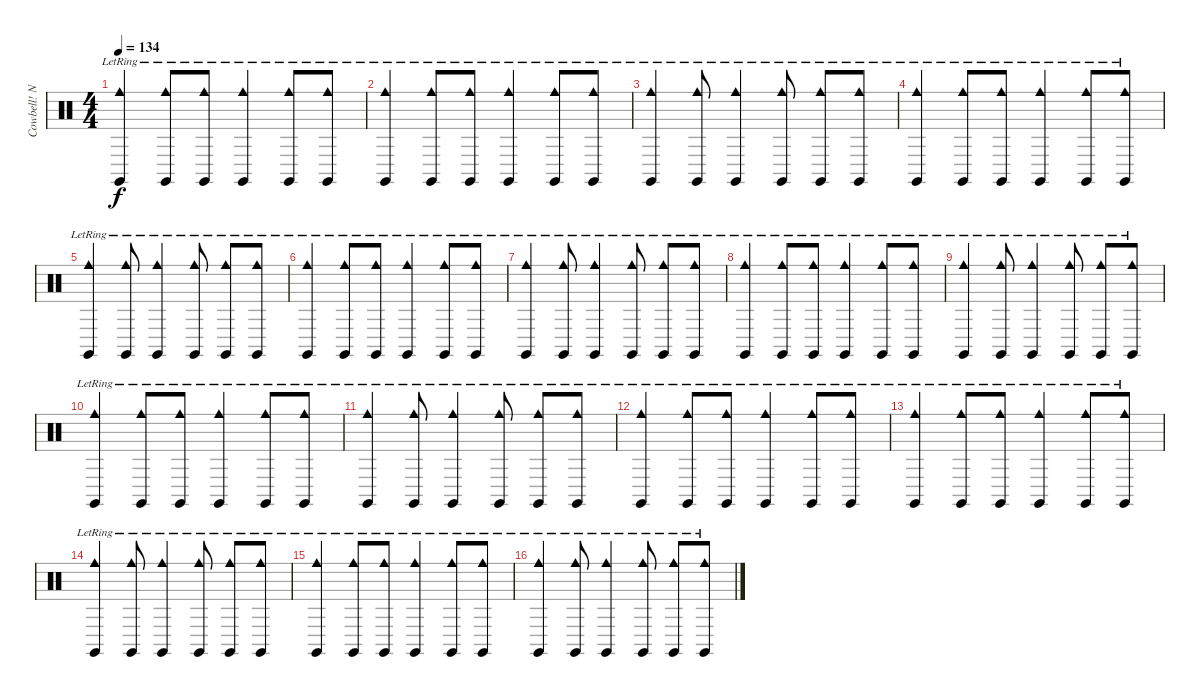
\track ("Cowbell! Need More Cowbell!" "Cowbell! N") {instrument percussion}
\staff {score}
\articulation defaults
\ts (4 4)
\tempo 134
\clef neutral
\ks c
("Cowbell medium (hit)"{lr} "Claves (hit)").4{dy f} ("Cowbell medium (hit)"{lr} "Claves (hit)").8 ("Cowbell medium (hit)"{lr} "Claves (hit)").8 ("Cowbell medium (hit)"{lr} "Claves (hit)").4 ("Cowbell medium (hit)"{lr} "Claves (hit)").8 ("Cowbell medium (hit)"{lr} "Claves (hit)").8 |
("Cowbell medium (hit)"{lr} "Claves (hit)").4 ("Cowbell medium (hit)"{lr} "Claves (hit)").8 ("Cowbell medium (hit)"{lr} "Claves (hit)").8 ("Cowbell medium (hit)"{lr} "Claves (hit)").4 ("Cowbell medium (hit)"{lr} "Claves (hit)").8 ("Cowbell medium (hit)"{lr} "Claves (hit)").8 |
("Cowbell medium (hit)"{lr} "Claves (hit)").4 ("Cowbell medium (hit)"{lr} "Claves (hit)").8 ("Cowbell medium (hit)"{lr} "Claves (hit)").4 ("Cowbell medium (hit)"{lr} "Claves (hit)").8 ("Cowbell medium (hit)"{lr} "Claves (hit)").8 ("Cowbell medium (hit)"{lr} "Claves (hit)").8 |
("Cowbell medium (hit)"{lr} "Claves (hit)").4 ("Cowbell medium (hit)"{lr} "Claves (hit)").8 ("Cowbell medium (hit)"{lr} "Claves (hit)").8 ("Cowbell medium (hit)"{lr} "Claves (hit)").4 ("Cowbell medium (hit)"{lr} "Claves (hit)").8 ("Cowbell medium (hit)"{lr} "Claves (hit)").8 |
("Cowbell medium (hit)"{lr} "Claves (hit)").4 ("Cowbell medium (hit)"{lr} "Claves (hit)").8 ("Cowbell medium (hit)"{lr} "Claves (hit)").4 ("Cowbell medium (hit)"{lr} "Claves (hit)").8 ("Cowbell medium (hit)"{lr} "Claves (hit)").8 ("Cowbell medium (hit)"{lr} "Claves (hit)").8 |
("Cowbell medium (hit)"{lr} "Claves (hit)").4 ("Cowbell medium (hit)"{lr} "Claves (hit)").8 ("Cowbell medium (hit)"{lr} "Claves (hit)").8 ("Cowbell medium (hit)"{lr} "Claves (hit)").4 ("Cowbell medium (hit)"{lr} "Claves (hit)").8 ("Cowbell medium (hit)"{lr} "Claves (hit)").8 |
("Cowbell medium (hit)"{lr} "Claves (hit)").4 ("Cowbell medium (hit)"{lr} "Claves (hit)").8 ("Cowbell medium (hit)"{lr} "Claves (hit)").4 ("Cowbell medium (hit)"{lr} "Claves (hit)").8 ("Cowbell medium (hit)"{lr} "Claves (hit)").8 ("Cowbell medium (hit)"{lr} "Claves (hit)").8 |
("Cowbell medium (hit)"{lr} "Claves (hit)").4 ("Cowbell medium (hit)"{lr} "Claves (hit)").8 ("Cowbell medium (hit)"{lr} "Claves (hit)").8 ("Cowbell medium (hit)"{lr} "Claves (hit)").4 ("Cowbell medium (hit)"{lr} "Claves (hit)").8 ("Cowbell medium (hit)"{lr} "Claves (hit)").8 |
("Cowbell medium (hit)"{lr} "Claves (hit)").4 ("Cowbell medium (hit)"{lr} "Claves (hit)").8 ("Cowbell medium (hit)"{lr} "Claves (hit)").4 ("Cowbell medium (hit)"{lr} "Claves (hit)").8 ("Cowbell medium (hit)"{lr} "Claves (hit)").8 ("Cowbell medium (hit)"{lr} "Claves (hit)").8 |
("Cowbell medium (hit)"{lr} "Claves (hit)").4 ("Cowbell medium (hit)"{lr} "Claves (hit)").8 ("Cowbell medium (hit)"{lr} "Claves (hit)").8 ("Cowbell medium (hit)"{lr} "Claves (hit)").4 ("Cowbell medium (hit)"{lr} "Claves (hit)").8 ("Cowbell medium (hit)"{lr} "Claves (hit)").8 |
("Cowbell medium (hit)"{lr} "Claves (hit)").4 ("Cowbell medium (hit)"{lr} "Claves (hit)").8 ("Cowbell medium (hit)"{lr} "Claves (hit)").4 ("Cowbell medium (hit)"{lr} "Claves (hit)").8 ("Cowbell medium (hit)"{lr} "Claves (hit)").8 ("Cowbell medium (hit)"{lr} "Claves (hit)").8 |
("Cowbell medium (hit)"{lr} "Claves (hit)").4 ("Cowbell medium (hit)"{lr} "Claves (hit)").8 ("Cowbell medium (hit)"{lr} "Claves (hit)").8 ("Cowbell medium (hit)"{lr} "Claves (hit)").4 ("Cowbell medium (hit)"{lr} "Claves (hit)").8 ("Cowbell medium (hit)"{lr} "Claves (hit)").8 |
("Cowbell medium (hit)"{lr} "Claves (hit)").4 ("Cowbell medium (hit)"{lr} "Claves (hit)").8 ("Cowbell medium (hit)"{lr} "Claves (hit)").8 ("Cowbell medium (hit)"{lr} "Claves (hit)").4 ("Cowbell medium (hit)"{lr} "Claves (hit)").8 ("Cowbell medium (hit)"{lr} "Claves (hit)").8 |
("Cowbell medium (hit)"{lr} "Claves (hit)").4 ("Cowbell medium (hit)"{lr} "Claves (hit)").8 ("Cowbell medium (hit)"{lr} "Claves (hit)").4 ("Cowbell medium (hit)"{lr} "Claves (hit)").8 ("Cowbell medium (hit)"{lr} "Claves (hit)").8 ("Cowbell medium (hit)"{lr} "Claves (hit)").8 |
("Cowbell medium (hit)"{lr} "Claves (hit)").4 ("Cowbell medium (hit)"{lr} "Claves (hit)").8 ("Cowbell medium (hit)"{lr} "Claves (hit)").8 ("Cowbell medium (hit)"{lr} "Claves (hit)").4 ("Cowbell medium (hit)"{lr} "Claves (hit)").8 ("Cowbell medium (hit)"{lr} "Claves (hit)").8 |
("Cowbell medium (hit)"{lr} "Claves (hit)").4 ("Cowbell medium (hit)"{lr} "Claves (hit)").8 ("Cowbell medium (hit)"{lr} "Claves (hit)").4 ("Cowbell medium (hit)"{lr} "Claves (hit)").8 ("Cowbell medium (hit)"{lr} "Claves (hit)").8 ("Cowbell medium (hit)"{lr} "Claves (hit)").8
